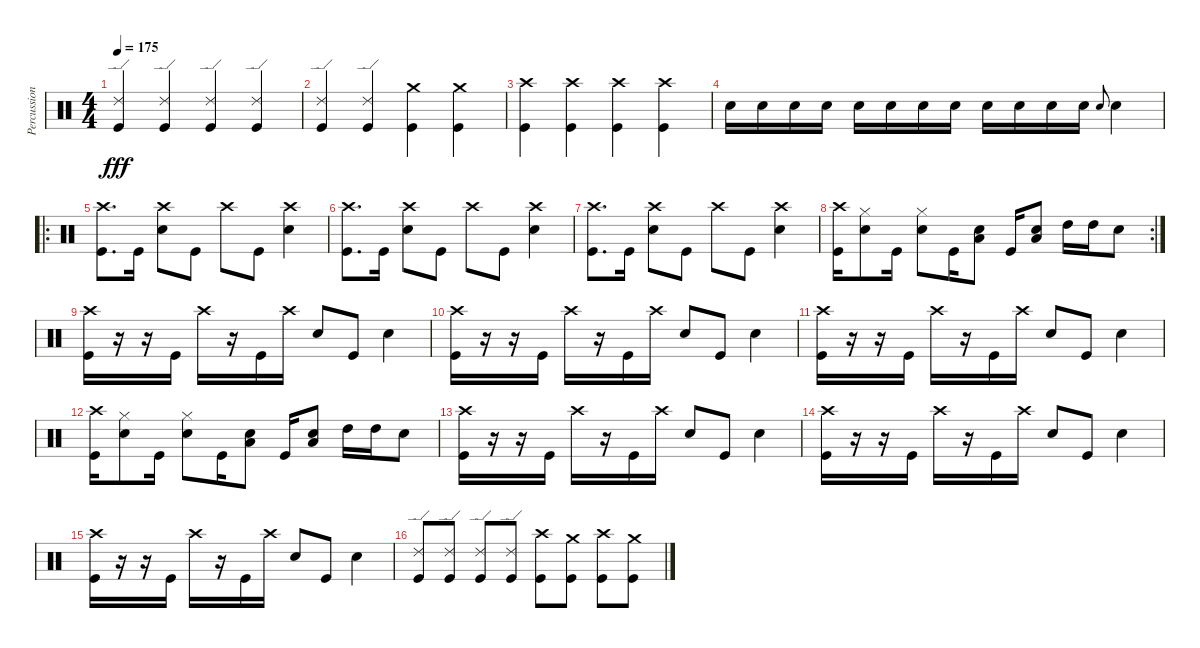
\track ("Percussion" "Percussion") {instrument percussion}
\staff {score}
\articulation defaults
\ts (4 4)
\tempo 175
\clef neutral
\ks c
("Ride (edge) 2" "Kick (hit)").4{dy fff} ("Ride (edge) 2" "Kick (hit)").4 ("Ride (edge) 2" "Kick (hit)").4 ("Ride (edge) 2" "Kick (hit)").4 |
("Ride (edge) 2" "Kick (hit)").4 ("Ride (edge) 2" "Kick (hit)").4 ("Crash medium (hit)" "Kick (hit)").4 ("Crash medium (hit)" "Kick (hit)").4 |
("Crash high (hit)" "Kick (hit)").4 ("Crash high (hit)" "Kick (hit)").4 ("Crash high (hit)" "Kick (hit)").4 ("Crash high (hit)" "Kick (hit)").4 |
"Snare (hit) 2".16 "Snare (hit) 2".16 "Snare (hit) 2".16 "Snare (hit) 2".16 "Snare (hit) 2".16 "Snare (hit) 2".16 "Snare (hit) 2".16 "Snare (hit) 2".16 "Snare (hit) 2".16 "Snare (hit) 2".16 "Snare (hit) 2".16 "Snare (hit) 2".16 "Snare (hit) 2".8{gr onbeat} "Snare (hit) 2".4 |
\ro
("Crash high (hit)" "Kick (hit)").8{d} "Kick (hit)".16 ("Crash high (hit)" "Snare (hit) 2").8 "Kick (hit)".8 "Crash high (hit)".8 "Kick (hit)".8 ("Crash high (hit)" "Snare (hit) 2").4 |
("Crash high (hit)" "Kick (hit)").8{d} "Kick (hit)".16 ("Crash high (hit)" "Snare (hit) 2").8 "Kick (hit)".8 "Crash high (hit)".8 "Kick (hit)".8 ("Crash high (hit)" "Snare (hit) 2").4 |
("Crash high (hit)" "Kick (hit)").8{d} "Kick (hit)".16 ("Crash high (hit)" "Snare (hit) 2").8 "Kick (hit)".8 "Crash high (hit)".8 "Kick (hit)".8 ("Crash high (hit)" "Snare (hit) 2").4 |
\rc 2
("Kick (hit)" "Crash high (hit)").16 ("Snare (hit) 2" "Hi-Hat (closed)").8 "Kick (hit)".16 ("Snare (hit) 2" "Hi-Hat (closed)").8 "Kick (hit)".16 ("Snare (hit) 2" "Low Tom (hit)").8 "Kick (hit)".16 ("Snare (hit) 2" "Low Tom (hit)").8 "High Tom (hit)".16 "High Tom (hit)".16 "Snare (hit) 2".8 |
("Crash high (hit)" "Kick (hit)").16 r.16 r.16 "Kick (hit)".16 "Crash high (hit)".16 r.16 "Kick (hit)".16 "Crash high (hit)".16 "Snare (hit) 2".8 "Kick (hit)".8 "Snare (hit) 2".4 |
("Crash high (hit)" "Kick (hit)").16 r.16 r.16 "Kick (hit)".16 "Crash high (hit)".16 r.16 "Kick (hit)".16 "Crash high (hit)".16 "Snare (hit) 2".8 "Kick (hit)".8 "Snare (hit) 2".4 |
("Crash high (hit)" "Kick (hit)").16 r.16 r.16 "Kick (hit)".16 "Crash high (hit)".16 r.16 "Kick (hit)".16 "Crash high (hit)".16 "Snare (hit) 2".8 "Kick (hit)".8 "Snare (hit) 2".4 |
("Kick (hit)" "Crash high (hit)").16 ("Snare (hit) 2" "Hi-Hat (closed)").8 "Kick (hit)".16 ("Snare (hit) 2" "Hi-Hat (closed)").8 "Kick (hit)".16 ("Snare (hit) 2" "Low Tom (hit)").8 "Kick (hit)".16 ("Snare (hit) 2" "Low Tom (hit)").8 "High Tom (hit)".16 "High Tom (hit)".16 "Snare (hit) 2".8 |
("Crash high (hit)" "Kick (hit)").16 r.16 r.16 "Kick (hit)".16 "Crash high (hit)".16 r.16 "Kick (hit)".16 "Crash high (hit)".16 "Snare (hit) 2".8 "Kick (hit)".8 "Snare (hit) 2".4 |
("Crash high (hit)" "Kick (hit)").16 r.16 r.16 "Kick (hit)".16 "Crash high (hit)".16 r.16 "Kick (hit)".16 "Crash high (hit)".16 "Snare (hit) 2".8 "Kick (hit)".8 "Snare (hit) 2".4 |
("Crash high (hit)" "Kick (hit)").16 r.16 r.16 "Kick (hit)".16 "Crash high (hit)".16 r.16 "Kick (hit)".16 "Crash high (hit)".16 "Snare (hit) 2".8 "Kick (hit)".8 "Snare (hit) 2".4 |
("Ride (edge) 2" "Kick (hit)").8 ("Ride (edge) 2" "Kick (hit)").8 ("Ride (edge) 2" "Kick (hit)").8 ("Ride (edge) 2" "Kick (hit)").8 ("Crash high (hit)" "Kick (hit)").8 ("Crash medium (hit)" "Kick (hit)").8 ("Crash high (hit)" "Kick (hit)").8 ("Crash medium (hit)" "Kick (hit)").8
